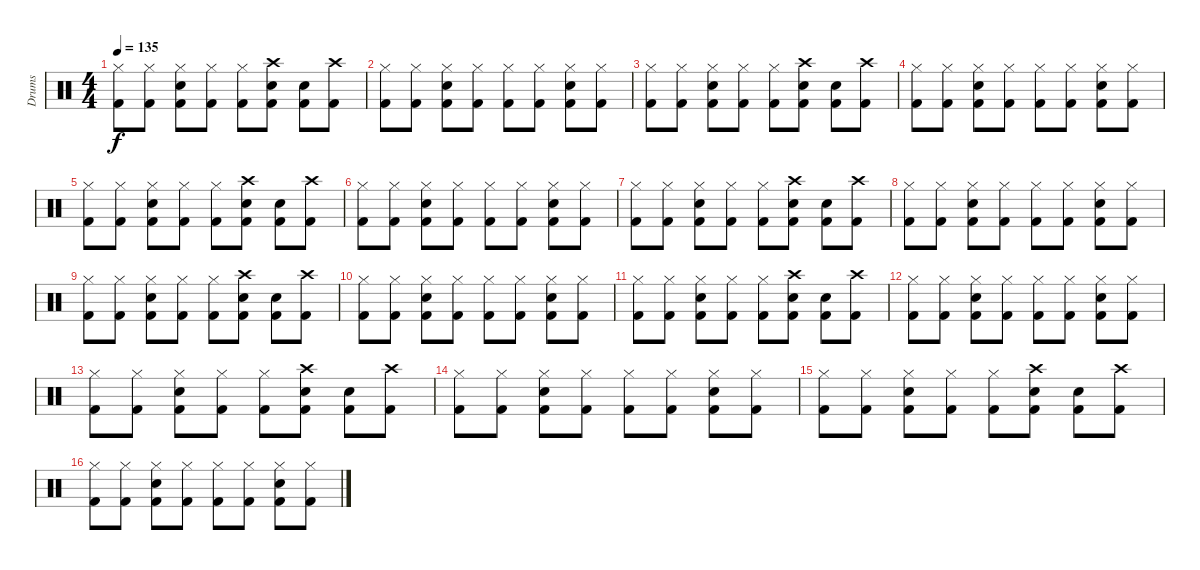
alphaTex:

\track ("Drums" "Drums") {instrument percussion}
\staff {score}
\articulation defaults
\ts (4 4)
\tempo 135
\clef neutral
\ks c
("Kick (hit) 2" "Hi-Hat (closed)").8{dy f} ("Kick (hit) 2" "Hi-Hat (closed)").8 ("Snare (hit) 2" "Kick (hit) 2" "Hi-Hat (closed)").8 ("Kick (hit) 2" "Hi-Hat (closed)").8 ("Kick (hit) 2" "Hi-Hat (closed)").8 ("Kick (hit) 2" "Crash high (hit)" "Snare (hit) 2").8 ("Snare (hit) 2" "Kick (hit) 2").8 ("Kick (hit) 2" "Crash high (hit)").8 |
("Kick (hit) 2" "Hi-Hat (closed)").8 ("Kick (hit) 2" "Hi-Hat (closed)").8 ("Snare (hit) 2" "Kick (hit) 2" "Hi-Hat (closed)").8 ("Kick (hit) 2" "Hi-Hat (closed)").8 ("Kick (hit) 2" "Hi-Hat (closed)").8 ("Kick (hit) 2" "Hi-Hat (closed)").8 ("Snare (hit) 2" "Kick (hit) 2" "Hi-Hat (closed)").8 ("Kick (hit) 2" "Hi-Hat (closed)").8 |
("Kick (hit) 2" "Hi-Hat (closed)").8 ("Kick (hit) 2" "Hi-Hat (closed)").8 ("Snare (hit) 2" "Kick (hit) 2" "Hi-Hat (closed)").8 ("Kick (hit) 2" "Hi-Hat (closed)").8 ("Kick (hit) 2" "Hi-Hat (closed)").8 ("Kick (hit) 2" "Crash high (hit)" "Snare (hit) 2").8 ("Snare (hit) 2" "Kick (hit) 2").8 ("Kick (hit) 2" "Crash high (hit)").8 |
("Kick (hit) 2" "Hi-Hat (closed)").8 ("Kick (hit) 2" "Hi-Hat (closed)").8 ("Snare (hit) 2" "Kick (hit) 2" "Hi-Hat (closed)").8 ("Kick (hit) 2" "Hi-Hat (closed)").8 ("Kick (hit) 2" "Hi-Hat (closed)").8 ("Kick (hit) 2" "Hi-Hat (closed)").8 ("Snare (hit) 2" "Kick (hit) 2" "Hi-Hat (closed)").8 ("Kick (hit) 2" "Hi-Hat (closed)").8 |
("Kick (hit) 2" "Hi-Hat (closed)").8 ("Kick (hit) 2" "Hi-Hat (closed)").8 ("Snare (hit) 2" "Kick (hit) 2" "Hi-Hat (closed)").8 ("Kick (hit) 2" "Hi-Hat (closed)").8 ("Kick (hit) 2" "Hi-Hat (closed)").8 ("Kick (hit) 2" "Crash high (hit)" "Snare (hit) 2").8 ("Snare (hit) 2" "Kick (hit) 2").8 ("Kick (hit) 2" "Crash high (hit)").8 |
("Kick (hit) 2" "Hi-Hat (closed)").8 ("Kick (hit) 2" "Hi-Hat (closed)").8 ("Snare (hit) 2" "Kick (hit) 2" "Hi-Hat (closed)").8 ("Kick (hit) 2" "Hi-Hat (closed)").8 ("Kick (hit) 2" "Hi-Hat (closed)").8 ("Kick (hit) 2" "Hi-Hat (closed)").8 ("Snare (hit) 2" "Kick (hit) 2" "Hi-Hat (closed)").8 ("Kick (hit) 2" "Hi-Hat (closed)").8 |
("Kick (hit) 2" "Hi-Hat (closed)").8 ("Kick (hit) 2" "Hi-Hat (closed)").8 ("Snare (hit) 2" "Kick (hit) 2" "Hi-Hat (closed)").8 ("Kick (hit) 2" "Hi-Hat (closed)").8 ("Kick (hit) 2" "Hi-Hat (closed)").8 ("Kick (hit) 2" "Crash high (hit)" "Snare (hit) 2").8 ("Snare (hit) 2" "Kick (hit) 2").8 ("Kick (hit) 2" "Crash high (hit)").8 |
("Kick (hit) 2" "Hi-Hat (closed)").8 ("Kick (hit) 2" "Hi-Hat (closed)").8 ("Snare (hit) 2" "Kick (hit) 2" "Hi-Hat (closed)").8 ("Kick (hit) 2" "Hi-Hat (closed)").8 ("Kick (hit) 2" "Hi-Hat (closed)").8 ("Kick (hit) 2" "Hi-Hat (closed)").8 ("Snare (hit) 2" "Kick (hit) 2" "Hi-Hat (closed)").8 ("Kick (hit) 2" "Hi-Hat (closed)").8 |
("Kick (hit) 2" "Hi-Hat (closed)").8 ("Kick (hit) 2" "Hi-Hat (closed)").8 ("Snare (hit) 2" "Kick (hit) 2" "Hi-Hat (closed)").8 ("Kick (hit) 2" "Hi-Hat (closed)").8 ("Kick (hit) 2" "Hi-Hat (closed)").8 ("Kick (hit) 2" "Crash high (hit)" "Snare (hit) 2").8 ("Snare (hit) 2" "Kick (hit) 2").8 ("Kick (hit) 2" "Crash high (hit)").8 |
("Kick (hit) 2" "Hi-Hat (closed)").8 ("Kick (hit) 2" "Hi-Hat (closed)").8 ("Snare (hit) 2" "Kick (hit) 2" "Hi-Hat (closed)").8 ("Kick (hit) 2" "Hi-Hat (closed)").8 ("Kick (hit) 2" "Hi-Hat (closed)").8 ("Kick (hit) 2" "Hi-Hat (closed)").8 ("Snare (hit) 2" "Kick (hit) 2" "Hi-Hat (closed)").8 ("Kick (hit) 2" "Hi-Hat (closed)").8 |
("Kick (hit) 2" "Hi-Hat (closed)").8 ("Kick (hit) 2" "Hi-Hat (closed)").8 ("Snare (hit) 2" "Kick (hit) 2" "Hi-Hat (closed)").8 ("Kick (hit) 2" "Hi-Hat (closed)").8 ("Kick (hit) 2" "Hi-Hat (closed)").8 ("Kick (hit) 2" "Crash high (hit)" "Snare (hit) 2").8 ("Snare (hit) 2" "Kick (hit) 2").8 ("Kick (hit) 2" "Crash high (hit)").8 |
("Kick (hit) 2" "Hi-Hat (closed)").8 ("Kick (hit) 2" "Hi-Hat (closed)").8 ("Snare (hit) 2" "Kick (hit) 2" "Hi-Hat (closed)").8 ("Kick (hit) 2" "Hi-Hat (closed)").8 ("Kick (hit) 2" "Hi-Hat (closed)").8 ("Kick (hit) 2" "Hi-Hat (closed)").8 ("Snare (hit) 2" "Kick (hit) 2" "Hi-Hat (closed)").8 ("Kick (hit) 2" "Hi-Hat (closed)").8 |
("Kick (hit) 2" "Hi-Hat (closed)").8 ("Kick (hit) 2" "Hi-Hat (closed)").8 ("Snare (hit) 2" "Kick (hit) 2" "Hi-Hat (closed)").8 ("Kick (hit) 2" "Hi-Hat (closed)").8 ("Kick (hit) 2" "Hi-Hat (closed)").8 ("Kick (hit) 2" "Crash high (hit)" "Snare (hit) 2").8 ("Snare (hit) 2" "Kick (hit) 2").8 ("Kick (hit) 2" "Crash high (hit)").8 |
("Kick (hit) 2" "Hi-Hat (closed)").8 ("Kick (hit) 2" "Hi-Hat (closed)").8 ("Snare (hit) 2" "Kick (hit) 2" "Hi-Hat (closed)").8 ("Kick (hit) 2" "Hi-Hat (closed)").8 ("Kick (hit) 2" "Hi-Hat (closed)").8 ("Kick (hit) 2" "Hi-Hat (closed)").8 ("Snare (hit) 2" "Kick (hit) 2" "Hi-Hat (closed)").8 ("Kick (hit) 2" "Hi-Hat (closed)").8 |
("Kick (hit) 2" "Hi-Hat (closed)").8 ("Kick (hit) 2" "Hi-Hat (closed)").8 ("Snare (hit) 2" "Kick (hit) 2" "Hi-Hat (closed)").8 ("Kick (hit) 2" "Hi-Hat (closed)").8 ("Kick (hit) 2" "Hi-Hat (closed)").8 ("Kick (hit) 2" "Crash high (hit)" "Snare (hit) 2").8 ("Snare (hit) 2" "Kick (hit) 2").8 ("Kick (hit) 2" "Crash high (hit)").8 |
("Kick (hit) 2" "Hi-Hat (closed)").8 ("Kick (hit) 2" "Hi-Hat (closed)").8 ("Snare (hit) 2" "Kick (hit) 2" "Hi-Hat (closed)").8 ("Kick (hit) 2" "Hi-Hat (closed)").8 ("Kick (hit) 2" "Hi-Hat (closed)").8 ("Kick (hit) 2" "Hi-Hat (closed)").8 ("Snare (hit) 2" "Kick (hit) 2" "Hi-Hat (closed)").8 ("Kick (hit) 2" "Hi-Hat (closed)").8
